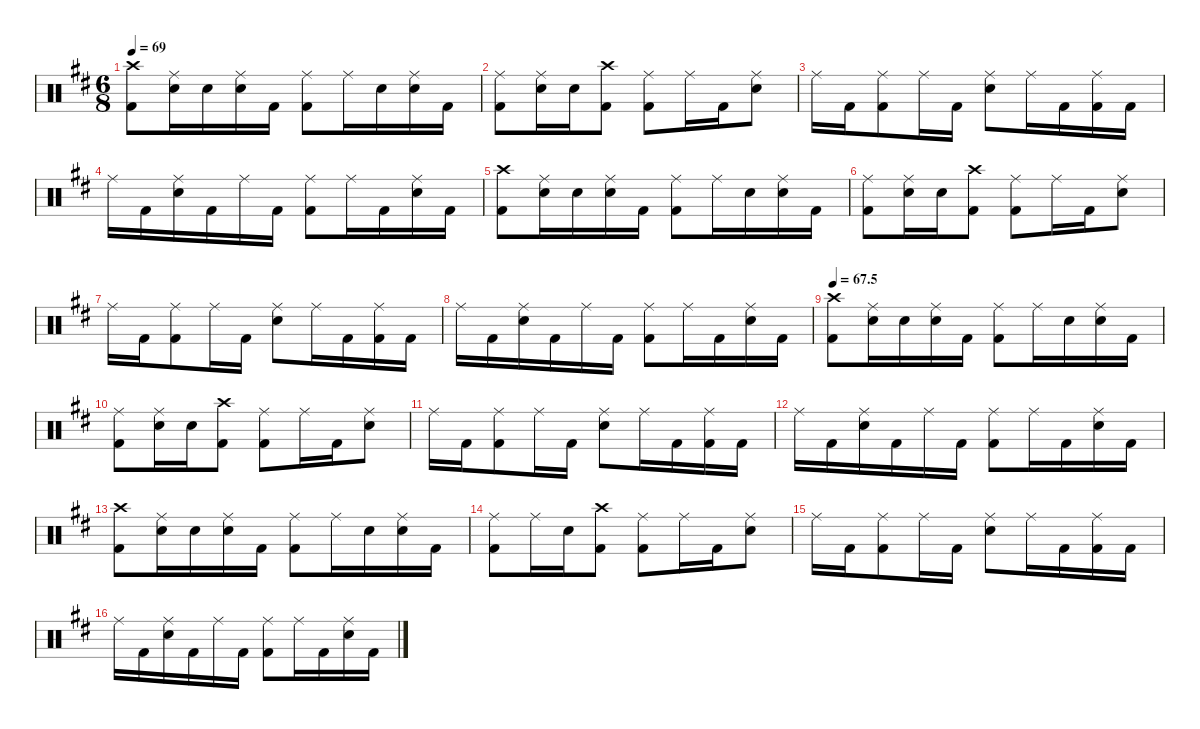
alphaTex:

\defaultSystemsLayout 4
\hideDynamics
\bracketExtendMode groupsimilarinstruments
\singleTrackTrackNamePolicy hidden
\multiTrackTrackNamePolicy hidden
\firstSystemTrackNameMode fullname
\firstSystemTrackNameOrientation horizontal
\otherSystemsTrackNameOrientation horizontal
\track ("Drumkit" "drm.") {defaultSystemsLayout 4 instrument percussion}
\staff {score}
\articulation defaults
\ts (6 8)
\tempo 69
\clef neutral
\ks bminor
("Kick (hit) 2"{acc forcenatural} "Crash high (hit)"{acc #}).8{dy ff beam Down} ("Snare (hit) 2"{acc forcenatural} "Ride (middle)"{acc #}).16{beam Down} "Snare (hit) 2"{acc forcenatural}.16{beam Down} ("Snare (hit) 2"{acc forcenatural} "Ride (middle)"{acc #}).16{beam Down} "Kick (hit) 2"{acc forcenatural}.16{beam Down} ("Ride (middle)"{acc #} "Kick (hit) 2"{acc forcenatural}).8{beam Down} "Ride (middle)"{acc #}.16{beam Down} "Snare (hit) 2"{acc forcenatural}.16{beam Down} ("Ride (middle)"{acc #} "Snare (hit) 2"{acc forcenatural}).16{beam Down} "Kick (hit) 2"{acc forcenatural}.16{beam Down} |
("Kick (hit) 2"{acc forcenatural} "Ride (middle)"{acc #}).8{beam Down} ("Snare (hit) 2"{acc forcenatural} "Ride (middle)"{acc #}).16{beam Down} "Snare (hit) 2"{acc forcenatural}.16{beam Down} ("Kick (hit) 2"{acc forcenatural} "Crash high (hit)"{acc #}).8{beam Down} ("Ride (middle)"{acc #} "Kick (hit) 2"{acc forcenatural}).8{beam Down} "Ride (middle)"{acc #}.16{beam Down} "Kick (hit) 2"{acc forcenatural}.16{beam Down} ("Ride (middle)"{acc #} "Snare (hit) 2"{acc forcenatural}).8{beam Down} |
"Ride (middle)"{acc #}.16{beam Down} "Kick (hit) 2"{acc forcenatural}.16{beam Down} ("Ride (middle)"{acc #} "Kick (hit) 2"{acc forcenatural}).8{beam Down} "Ride (middle)"{acc #}.16{beam Down} "Kick (hit) 2"{acc forcenatural}.16{beam Down} ("Ride (middle)"{acc #} "Snare (hit) 2"{acc forcenatural}).8{beam Down} "Ride (middle)"{acc #}.16{beam Down} "Kick (hit) 2"{acc forcenatural}.16{beam Down} ("Kick (hit) 2"{acc forcenatural} "Ride (middle)"{acc #}).16{beam Down} "Kick (hit) 2"{acc forcenatural}.16{beam Down} |
"Ride (middle)"{acc #}.16{beam Down} "Kick (hit) 2"{acc forcenatural}.16{beam Down} ("Ride (middle)"{acc #} "Snare (hit) 2"{acc forcenatural}).16{beam Down} "Kick (hit) 2"{acc forcenatural}.16{beam Down} "Ride (middle)"{acc #}.16{beam Down} "Kick (hit) 2"{acc forcenatural}.16{beam Down} ("Ride (middle)"{acc #} "Kick (hit) 2"{acc forcenatural}).8{beam Down} "Ride (middle)"{acc #}.16{beam Down} "Kick (hit) 2"{acc forcenatural}.16{beam Down} ("Ride (middle)"{acc #} "Snare (hit) 2"{acc forcenatural}).16{beam Down} "Kick (hit) 2"{acc forcenatural}.16{beam Down} |
("Kick (hit) 2"{acc forcenatural} "Crash high (hit)"{acc #}).8{beam Down} ("Snare (hit) 2"{acc forcenatural} "Ride (middle)"{acc #}).16{beam Down} "Snare (hit) 2"{acc forcenatural}.16{beam Down} ("Snare (hit) 2"{acc forcenatural} "Ride (middle)"{acc #}).16{beam Down} "Kick (hit) 2"{acc forcenatural}.16{beam Down} ("Ride (middle)"{acc #} "Kick (hit) 2"{acc forcenatural}).8{beam Down} "Ride (middle)"{acc #}.16{beam Down} "Snare (hit) 2"{acc forcenatural}.16{beam Down} ("Ride (middle)"{acc #} "Snare (hit) 2"{acc forcenatural}).16{beam Down} "Kick (hit) 2"{acc forcenatural}.16{beam Down} |
("Kick (hit) 2"{acc forcenatural} "Ride (middle)"{acc #}).8{beam Down} ("Snare (hit) 2"{acc forcenatural} "Ride (middle)"{acc #}).16{beam Down} "Snare (hit) 2"{acc forcenatural}.16{beam Down} ("Kick (hit) 2"{acc forcenatural} "Crash high (hit)"{acc #}).8{beam Down} ("Ride (middle)"{acc #} "Kick (hit) 2"{acc forcenatural}).8{beam Down} "Ride (middle)"{acc #}.16{beam Down} "Kick (hit) 2"{acc forcenatural}.16{beam Down} ("Ride (middle)"{acc #} "Snare (hit) 2"{acc forcenatural}).8{beam Down} |
"Ride (middle)"{acc #}.16{beam Down} "Kick (hit) 2"{acc forcenatural}.16{beam Down} ("Ride (middle)"{acc #} "Kick (hit) 2"{acc forcenatural}).8{beam Down} "Ride (middle)"{acc #}.16{beam Down} "Kick (hit) 2"{acc forcenatural}.16{beam Down} ("Ride (middle)"{acc #} "Snare (hit) 2"{acc forcenatural}).8{beam Down} "Ride (middle)"{acc #}.16{beam Down} "Kick (hit) 2"{acc forcenatural}.16{beam Down} ("Kick (hit) 2"{acc forcenatural} "Ride (middle)"{acc #}).16{beam Down} "Kick (hit) 2"{acc forcenatural}.16{beam Down} |
"Ride (middle)"{acc #}.16{beam Down} "Kick (hit) 2"{acc forcenatural}.16{beam Down} ("Ride (middle)"{acc #} "Snare (hit) 2"{acc forcenatural}).16{beam Down} "Kick (hit) 2"{acc forcenatural}.16{beam Down} "Ride (middle)"{acc #}.16{beam Down} "Kick (hit) 2"{acc forcenatural}.16{beam Down} ("Ride (middle)"{acc #} "Kick (hit) 2"{acc forcenatural}).8{beam Down} "Ride (middle)"{acc #}.16{beam Down} "Kick (hit) 2"{acc forcenatural}.16{beam Down} ("Ride (middle)"{acc #} "Snare (hit) 2"{acc forcenatural}).16{beam Down} "Kick (hit) 2"{acc forcenatural}.16{beam Down} |
\tempo
67.5 ("Kick (hit) 2"{acc forcenatural} "Crash high (hit)"{acc #}).8{beam Down} ("Snare (hit) 2"{acc forcenatural} "Ride (middle)"{acc #}).16{beam Down} "Snare (hit) 2"{acc forcenatural}.16{beam Down} ("Snare (hit) 2"{acc forcenatural} "Ride (middle)"{acc #}).16{beam Down} "Kick (hit) 2"{acc forcenatural}.16{beam Down} ("Ride (middle)"{acc #} "Kick (hit) 2"{acc forcenatural}).8{beam Down} "Ride (middle)"{acc #}.16{beam Down} "Snare (hit) 2"{acc forcenatural}.16{beam Down} ("Ride (middle)"{acc #} "Snare (hit) 2"{acc forcenatural}).16{beam Down} "Kick (hit) 2"{acc forcenatural}.16{beam Down} |
("Kick (hit) 2"{acc forcenatural} "Ride (middle)"{acc #}).8{beam Down} ("Snare (hit) 2"{acc forcenatural} "Ride (middle)"{acc #}).16{beam Down} "Snare (hit) 2"{acc forcenatural}.16{beam Down} ("Kick (hit) 2"{acc forcenatural} "Crash high (hit)"{acc #}).8{beam Down} ("Ride (middle)"{acc #} "Kick (hit) 2"{acc forcenatural}).8{beam Down} "Ride (middle)"{acc #}.16{beam Down} "Kick (hit) 2"{acc forcenatural}.16{beam Down} ("Ride (middle)"{acc #} "Snare (hit) 2"{acc forcenatural}).8{beam Down} |
"Ride (middle)"{acc #}.16{beam Down} "Kick (hit) 2"{acc forcenatural}.16{beam Down} ("Ride (middle)"{acc #} "Kick (hit) 2"{acc forcenatural}).8{beam Down} "Ride (middle)"{acc #}.16{beam Down} "Kick (hit) 2"{acc forcenatural}.16{beam Down} ("Ride (middle)"{acc #} "Snare (hit) 2"{acc forcenatural}).8{beam Down} "Ride (middle)"{acc #}.16{beam Down} "Kick (hit) 2"{acc forcenatural}.16{beam Down} ("Kick (hit) 2"{acc forcenatural} "Ride (middle)"{acc #}).16{beam Down} "Kick (hit) 2"{acc forcenatural}.16{beam Down} |
"Ride (middle)"{acc #}.16{beam Down} "Kick (hit) 2"{acc forcenatural}.16{beam Down} ("Ride (middle)"{acc #} "Snare (hit) 2"{acc forcenatural}).16{beam Down} "Kick (hit) 2"{acc forcenatural}.16{beam Down} "Ride (middle)"{acc #}.16{beam Down} "Kick (hit) 2"{acc forcenatural}.16{beam Down} ("Ride (middle)"{acc #} "Kick (hit) 2"{acc forcenatural}).8{beam Down} "Ride (middle)"{acc #}.16{beam Down} "Kick (hit) 2"{acc forcenatural}.16{beam Down} ("Ride (middle)"{acc #} "Snare (hit) 2"{acc forcenatural}).16{beam Down} "Kick (hit) 2"{acc forcenatural}.16{beam Down} |
("Kick (hit) 2"{acc forcenatural} "Crash high (hit)"{acc #}).8{beam Down} ("Snare (hit) 2"{acc forcenatural} "Ride (middle)"{acc #}).16{beam Down} "Snare (hit) 2"{acc forcenatural}.16{beam Down} ("Snare (hit) 2"{acc forcenatural} "Ride (middle)"{acc #}).16{beam Down} "Kick (hit) 2"{acc forcenatural}.16{beam Down} ("Ride (middle)"{acc #} "Kick (hit) 2"{acc forcenatural}).8{beam Down} "Ride (middle)"{acc #}.16{beam Down} "Snare (hit) 2"{acc forcenatural}.16{beam Down} ("Ride (middle)"{acc #} "Snare (hit) 2"{acc forcenatural}).16{beam Down} "Kick (hit) 2"{acc forcenatural}.16{beam Down} |
("Kick (hit) 2"{acc forcenatural} "Ride (middle)"{acc #}).8{beam Down} "Ride (middle)"{acc #}.16{beam Down} "Snare (hit) 2"{acc forcenatural}.16{beam Down} ("Kick (hit) 2"{acc forcenatural} "Crash high (hit)"{acc #}).8{beam Down} ("Ride (middle)"{acc #} "Kick (hit) 2"{acc forcenatural}).8{beam Down} "Ride (middle)"{acc #}.16{beam Down} "Kick (hit) 2"{acc forcenatural}.16{beam Down} ("Ride (middle)"{acc #} "Snare (hit) 2"{acc forcenatural}).8{beam Down} |
"Ride (middle)"{acc #}.16{beam Down} "Kick (hit) 2"{acc forcenatural}.16{beam Down} ("Ride (middle)"{acc #} "Kick (hit) 2"{acc forcenatural}).8{beam Down} "Ride (middle)"{acc #}.16{beam Down} "Kick (hit) 2"{acc forcenatural}.16{beam Down} ("Ride (middle)"{acc #} "Snare (hit) 2"{acc forcenatural}).8{beam Down} "Ride (middle)"{acc #}.16{beam Down} "Kick (hit) 2"{acc forcenatural}.16{beam Down} ("Kick (hit) 2"{acc forcenatural} "Ride (middle)"{acc #}).16{beam Down} "Kick (hit) 2"{acc forcenatural}.16{beam Down} |
"Ride (middle)"{acc #}.16{beam Down} "Kick (hit) 2"{acc forcenatural}.16{beam Down} ("Ride (middle)"{acc #} "Snare (hit) 2"{acc forcenatural}).16{beam Down} "Kick (hit) 2"{acc forcenatural}.16{beam Down} "Ride (middle)"{acc #}.16{beam Down} "Kick (hit) 2"{acc forcenatural}.16{beam Down} ("Ride (middle)"{acc #} "Kick (hit) 2"{acc forcenatural}).8{beam Down} "Ride (middle)"{acc #}.16{beam Down} "Kick (hit) 2"{acc forcenatural}.16{beam Down} ("Ride (middle)"{acc #} "Snare (hit) 2"{acc forcenatural}).16{beam Down} "Kick (hit) 2"{acc forcenatural}.16{beam Down}
